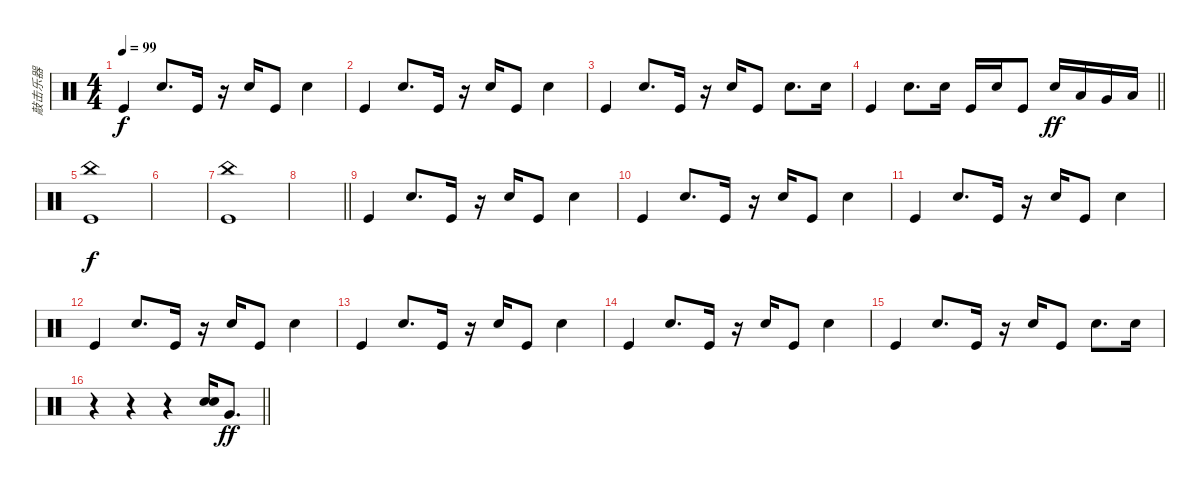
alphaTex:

\track ("敲击乐器" "敲击乐器") {instrument percussion}
\staff {score}
\articulation defaults
\ts (4 4)
\tempo 99
\clef neutral
\ks c "Kick (hit)".4{dy f} "Snare (hit) 2".8{d} "Kick (hit)".16
r.16 "Snare (hit) 2".16 "Kick (hit)".8 "Snare (hit) 2".4 |
"Kick (hit)".4 "Snare (hit) 2".8{d} "Kick (hit)".16 r.16 "Snare (hit) 2".16 "Kick (hit)".8 "Snare (hit) 2".4 |
"Kick (hit)".4 "Snare (hit) 2".8{d} "Kick (hit)".16 r.16 "Snare (hit) 2".16 "Kick (hit)".8 "Snare (hit) 2".8{d} "Snare (hit) 2".16 |
\barLineRight lightlight "Kick (hit)".4 "Snare (hit) 2".8{d} "Snare (hit) 2".16 "Kick (hit)".16 "Snare (hit) 2".16 "Kick (hit)".8 "Snare (hit) 2".16{dy ff} "Low Tom (hit)".16 "Very Low Tom (hit)".16 "Low Floor Tom (hit)".16
|
("Kick (hit)" "China (hit)").1{dy f} |
|
("China (hit)" "Kick (hit)").1 |
\barLineRight lightlight
|
"Kick (hit)".4 "Snare (hit) 2".8{d} "Kick (hit)".16 r.16 "Snare (hit) 2".16 "Kick (hit)".8 "Snare (hit) 2".4 |
"Kick (hit)".4 "Snare (hit) 2".8{d} "Kick (hit)".16 r.16 "Snare (hit) 2".16 "Kick (hit)".8 "Snare (hit) 2".4 |
"Kick (hit)".4 "Snare (hit) 2".8{d} "Kick (hit)".16 r.16 "Snare (hit) 2".16 "Kick (hit)".8 "Snare (hit) 2".4 |
"Kick (hit)".4 "Snare (hit) 2".8{d} "Kick (hit)".16 r.16 "Snare (hit) 2".16 "Kick (hit)".8 "Snare (hit) 2".4 |
"Kick (hit)".4 "Snare (hit) 2".8{d} "Kick (hit)".16 r.16 "Snare (hit) 2".16 "Kick (hit)".8 "Snare (hit) 2".4 |
"Kick (hit)".4 "Snare (hit) 2".8{d} "Kick (hit)".16 r.16 "Snare (hit) 2".16 "Kick (hit)".8 "Snare (hit) 2".4 |
"Kick (hit)".4 "Snare (hit) 2".8{d} "Kick (hit)".16 r.16 "Snare (hit) 2".16 "Kick (hit)".8 "Snare (hit) 2".8{d} "Snare (hit) 2".16 |
\barLineRight lightlight
r.4 r.4 r.4 ("Snare (hit) 2" "Electric Snare (hit)").16 "Very Low Tom (hit)".8{d dy ff}
